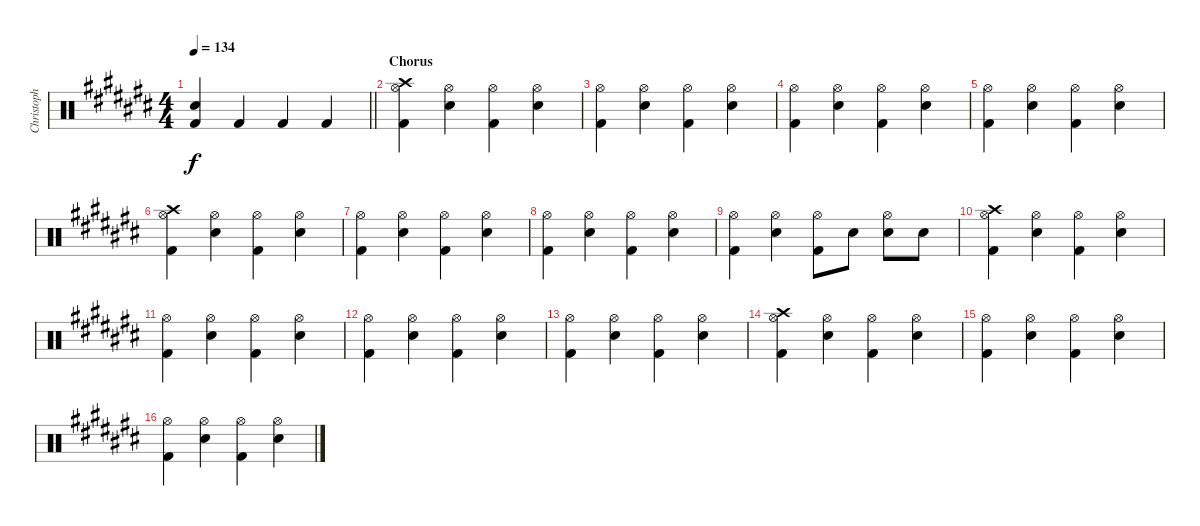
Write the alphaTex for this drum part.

\track ("Christoph Doom Schneider - Drums" "Christoph ") {instrument percussion}
\staff {score}
\articulation defaults
\ts (4 4)
\tempo 134
\clef neutral
\barLineRight lightlight
\ks c#
("Electric Snare (hit)" "Kick (hit) 2").4{dy f} "Kick (hit) 2".4 "Kick (hit) 2".4 "Kick (hit) 2".4 |
\section ("" "Chorus")
("Crash high (hit)" "Hi-Hat (open)" "Kick (hit) 2").4 ("Hi-Hat (open)" "Electric Snare (hit)").4 ("Hi-Hat (open)" "Kick (hit) 2").4 ("Hi-Hat (open)" "Electric Snare (hit)").4 |
("Hi-Hat (open)" "Kick (hit) 2").4 ("Hi-Hat (open)" "Electric Snare (hit)").4 ("Hi-Hat (open)" "Kick (hit) 2").4 ("Hi-Hat (open)" "Electric Snare (hit)").4 |
("Hi-Hat (open)" "Kick (hit) 2").4 ("Hi-Hat (open)" "Electric Snare (hit)").4 ("Hi-Hat (open)" "Kick (hit) 2").4 ("Hi-Hat (open)" "Electric Snare (hit)").4 |
("Hi-Hat (open)" "Kick (hit) 2").4 ("Hi-Hat (open)" "Electric Snare (hit)").4 ("Hi-Hat (open)" "Kick (hit) 2").4 ("Hi-Hat (open)" "Electric Snare (hit)").4 |
("Crash high (hit)" "Hi-Hat (open)" "Kick (hit) 2").4 ("Hi-Hat (open)" "Electric Snare (hit)").4 ("Hi-Hat (open)" "Kick (hit) 2").4 ("Hi-Hat (open)" "Electric Snare (hit)").4 |
("Hi-Hat (open)" "Kick (hit) 2").4 ("Hi-Hat (open)" "Electric Snare (hit)").4 ("Hi-Hat (open)" "Kick (hit) 2").4 ("Hi-Hat (open)" "Electric Snare (hit)").4 |
("Hi-Hat (open)" "Kick (hit) 2").4 ("Hi-Hat (open)" "Electric Snare (hit)").4 ("Hi-Hat (open)" "Kick (hit) 2").4 ("Hi-Hat (open)" "Electric Snare (hit)").4 |
("Hi-Hat (open)" "Kick (hit) 2").4 ("Hi-Hat (open)" "Electric Snare (hit)").4 ("Hi-Hat (open)" "Kick (hit) 2").8 "Electric Snare (hit)".8 ("Hi-Hat (open)" "Electric Snare (hit)").8 "Electric Snare (hit)".8 |
("Crash high (hit)" "Hi-Hat (open)" "Kick (hit) 2").4 ("Hi-Hat (open)" "Electric Snare (hit)").4 ("Hi-Hat (open)" "Kick (hit) 2").4 ("Hi-Hat (open)" "Electric Snare (hit)").4 |
("Hi-Hat (open)" "Kick (hit) 2").4 ("Hi-Hat (open)" "Electric Snare (hit)").4 ("Hi-Hat (open)" "Kick (hit) 2").4 ("Hi-Hat (open)" "Electric Snare (hit)").4 |
("Hi-Hat (open)" "Kick (hit) 2").4 ("Hi-Hat (open)" "Electric Snare (hit)").4 ("Hi-Hat (open)" "Kick (hit) 2").4 ("Hi-Hat (open)" "Electric Snare (hit)").4 |
("Hi-Hat (open)" "Kick (hit) 2").4 ("Hi-Hat (open)" "Electric Snare (hit)").4 ("Hi-Hat (open)" "Kick (hit) 2").4 ("Hi-Hat (open)" "Electric Snare (hit)").4 |
("Crash high (hit)" "Hi-Hat (open)" "Kick (hit) 2").4 ("Hi-Hat (open)" "Electric Snare (hit)").4 ("Hi-Hat (open)" "Kick (hit) 2").4 ("Hi-Hat (open)" "Electric Snare (hit)").4 |
("Hi-Hat (open)" "Kick (hit) 2").4 ("Hi-Hat (open)" "Electric Snare (hit)").4 ("Hi-Hat (open)" "Kick (hit) 2").4 ("Hi-Hat (open)" "Electric Snare (hit)").4 |
("Hi-Hat (open)" "Kick (hit) 2").4 ("Hi-Hat (open)" "Electric Snare (hit)").4 ("Hi-Hat (open)" "Kick (hit) 2").4 ("Hi-Hat (open)" "Electric Snare (hit)").4
